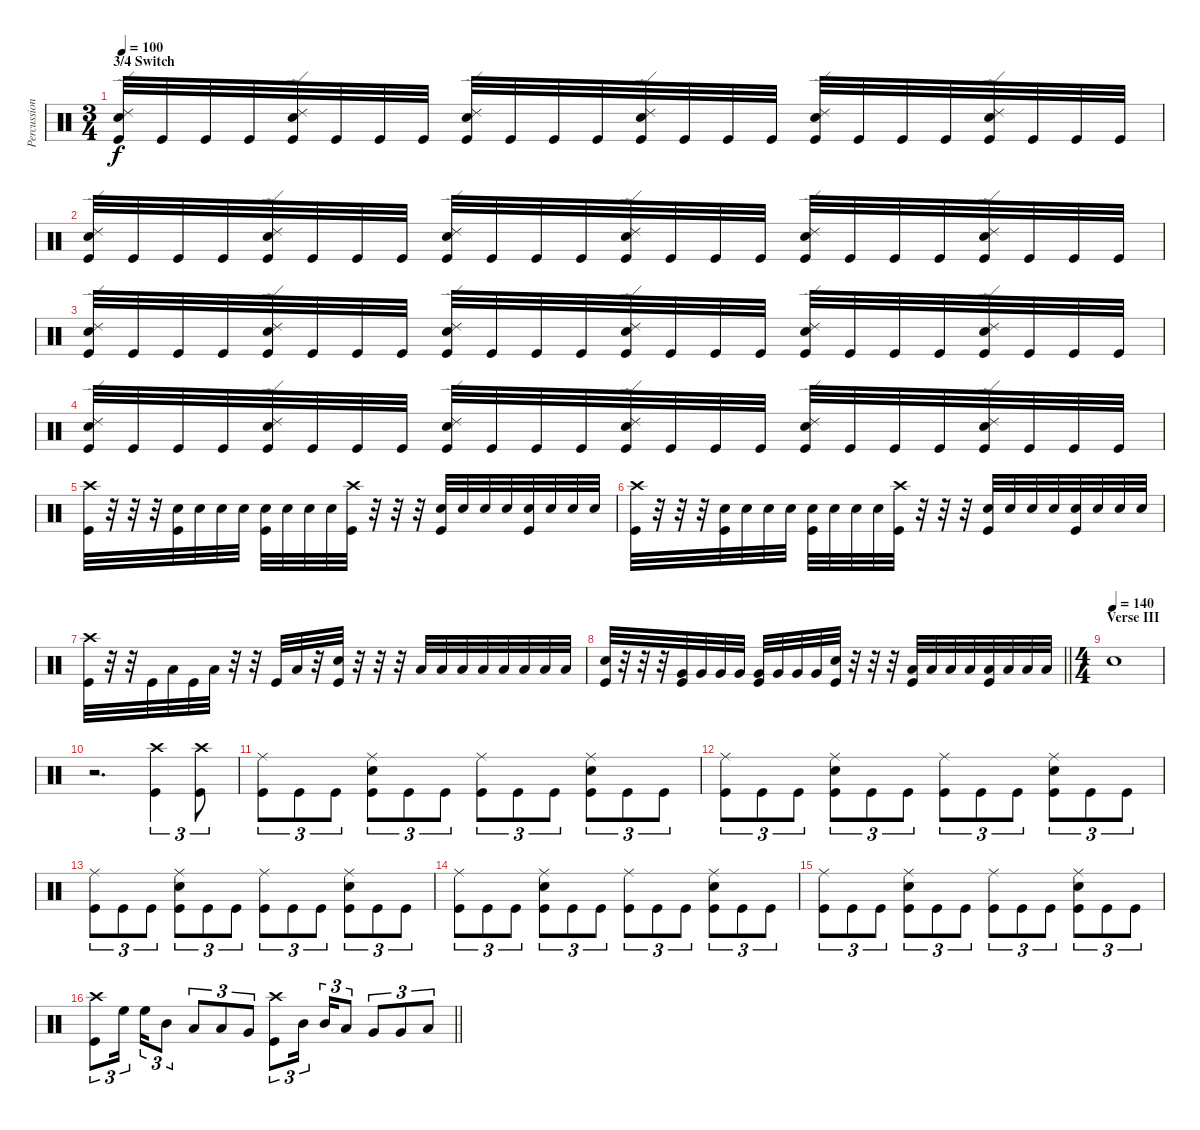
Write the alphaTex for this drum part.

\track ("Percussion" "Percussion") {instrument percussion}
\staff {score}
\articulation defaults
\ts (3 4)
\section ("" "3/4 Switch")
\tempo 100
\clef neutral
\ks c
("Ride (edge) 2" "Snare (hit) 2" "Kick (hit)").32{dy f} "Kick (hit)".32 "Kick (hit)".32 "Kick (hit)".32 ("Ride (edge) 2" "Snare (hit) 2" "Kick (hit)").32 "Kick (hit)".32 "Kick (hit)".32 "Kick (hit)".32 ("Ride (edge) 2" "Snare (hit) 2" "Kick (hit)").32 "Kick (hit)".32 "Kick (hit)".32 "Kick (hit)".32 ("Ride (edge) 2" "Snare (hit) 2" "Kick (hit)").32 "Kick (hit)".32 "Kick (hit)".32 "Kick (hit)".32 ("Ride (edge) 2" "Snare (hit) 2" "Kick (hit)").32 "Kick (hit)".32 "Kick (hit)".32 "Kick (hit)".32 ("Ride (edge) 2" "Snare (hit) 2" "Kick (hit)").32 "Kick (hit)".32 "Kick (hit)".32 "Kick (hit)".32 |
("Ride (edge) 2" "Snare (hit) 2" "Kick (hit)").32 "Kick (hit)".32 "Kick (hit)".32 "Kick (hit)".32 ("Ride (edge) 2" "Snare (hit) 2" "Kick (hit)").32 "Kick (hit)".32 "Kick (hit)".32 "Kick (hit)".32 ("Ride (edge) 2" "Snare (hit) 2" "Kick (hit)").32 "Kick (hit)".32 "Kick (hit)".32 "Kick (hit)".32 ("Ride (edge) 2" "Snare (hit) 2" "Kick (hit)").32 "Kick (hit)".32 "Kick (hit)".32 "Kick (hit)".32 ("Ride (edge) 2" "Snare (hit) 2" "Kick (hit)").32 "Kick (hit)".32 "Kick (hit)".32 "Kick (hit)".32 ("Ride (edge) 2" "Snare (hit) 2" "Kick (hit)").32 "Kick (hit)".32 "Kick (hit)".32 "Kick (hit)".32 |
("Ride (edge) 2" "Snare (hit) 2" "Kick (hit)").32 "Kick (hit)".32 "Kick (hit)".32 "Kick (hit)".32 ("Ride (edge) 2" "Snare (hit) 2" "Kick (hit)").32 "Kick (hit)".32 "Kick (hit)".32 "Kick (hit)".32 ("Ride (edge) 2" "Snare (hit) 2" "Kick (hit)").32 "Kick (hit)".32 "Kick (hit)".32 "Kick (hit)".32 ("Ride (edge) 2" "Snare (hit) 2" "Kick (hit)").32 "Kick (hit)".32 "Kick (hit)".32 "Kick (hit)".32 ("Ride (edge) 2" "Snare (hit) 2" "Kick (hit)").32 "Kick (hit)".32 "Kick (hit)".32 "Kick (hit)".32 ("Ride (edge) 2" "Snare (hit) 2" "Kick (hit)").32 "Kick (hit)".32 "Kick (hit)".32 "Kick (hit)".32 |
("Ride (edge) 2" "Snare (hit) 2" "Kick (hit)").32 "Kick (hit)".32 "Kick (hit)".32 "Kick (hit)".32 ("Ride (edge) 2" "Snare (hit) 2" "Kick (hit)").32 "Kick (hit)".32 "Kick (hit)".32 "Kick (hit)".32 ("Ride (edge) 2" "Snare (hit) 2" "Kick (hit)").32 "Kick (hit)".32 "Kick (hit)".32 "Kick (hit)".32 ("Ride (edge) 2" "Snare (hit) 2" "Kick (hit)").32 "Kick (hit)".32 "Kick (hit)".32 "Kick (hit)".32 ("Ride (edge) 2" "Snare (hit) 2" "Kick (hit)").32 "Kick (hit)".32 "Kick (hit)".32 "Kick (hit)".32 ("Ride (edge) 2" "Snare (hit) 2" "Kick (hit)").32 "Kick (hit)".32 "Kick (hit)".32 "Kick (hit)".32 |
("Crash high (hit)" "Kick (hit)").32 r.32 r.32 r.32 ("Snare (hit) 2" "Kick (hit)").32 "Snare (hit) 2".32 "Snare (hit) 2".32 "Snare (hit) 2".32 ("Snare (hit) 2" "Kick (hit)").32 "Snare (hit) 2".32 "Snare (hit) 2".32 "Snare (hit) 2".32 ("Crash high (hit)" "Kick (hit)").32 r.32 r.32 r.32 ("Snare (hit) 2" "Kick (hit)").32 "Snare (hit) 2".32 "Snare (hit) 2".32 "Snare (hit) 2".32 ("Snare (hit) 2" "Kick (hit)").32 "Snare (hit) 2".32 "Snare (hit) 2".32 "Snare (hit) 2".32 |
("Crash high (hit)" "Kick (hit)").32 r.32 r.32 r.32 ("Snare (hit) 2" "Kick (hit)").32 "Snare (hit) 2".32 "Snare (hit) 2".32 "Snare (hit) 2".32 ("Snare (hit) 2" "Kick (hit)").32 "Snare (hit) 2".32 "Snare (hit) 2".32 "Snare (hit) 2".32 ("Crash high (hit)" "Kick (hit)").32 r.32 r.32 r.32 ("Snare (hit) 2" "Kick (hit)").32 "Snare (hit) 2".32 "Snare (hit) 2".32 "Snare (hit) 2".32 ("Snare (hit) 2" "Kick (hit)").32 "Snare (hit) 2".32 "Snare (hit) 2".32 "Snare (hit) 2".32 |
("Crash high (hit)" "Kick (hit)").32 r.32 r.32 "Kick (hit)".32 "Low Tom (hit)".32 "Kick (hit)".32 "Low Tom (hit)".32 r.32 r.32 "Kick (hit)".32 "Low Tom (hit)".32 r.32 ("Snare (hit) 2" "Kick (hit)").32 r.32 r.32 r.32 "Low Tom (hit)".32 "Low Tom (hit)".32 "Low Tom (hit)".32 "Low Tom (hit)".32 "Low Tom (hit)".32 "Low Tom (hit)".32 "Low Tom (hit)".32 "Low Tom (hit)".32 |
\barLineRight lightlight
("Snare (hit) 2" "Kick (hit)").32 r.32 r.32 r.32 ("Very Low Tom (hit)" "Kick (hit)").32 "Very Low Tom (hit)".32 "Very Low Tom (hit)".32 "Very Low Tom (hit)".32 ("Very Low Tom (hit)" "Kick (hit)").32 "Very Low Tom (hit)".32 "Very Low Tom (hit)".32 "Very Low Tom (hit)".32 ("Snare (hit) 2" "Kick (hit)").32 r.32 r.32 r.32 ("Low Floor Tom (hit)" "Kick (hit)").32 "Low Floor Tom (hit)".32 "Low Floor Tom (hit)".32 "Low Floor Tom (hit)".32 ("Low Floor Tom (hit)" "Kick (hit)").32 "Low Floor Tom (hit)".32 "Low Floor Tom (hit)".32 "Low Floor Tom (hit)".32 |
\ts (4 4)
\section ("" "Verse III")
\tempo (140)
"Electric Snare (hit)".1 |
r.2{d} ("Crash high (hit)" "Kick (hit)").4{tu (3 2)} ("Crash high (hit)" "Kick (hit)").8{tu (3 2)} |
("Ride (middle)" "Kick (hit)").8{tu (3 2)} "Kick (hit)".8{tu (3 2)} "Kick (hit)".8{tu (3 2)} ("Ride (middle)" "Snare (hit) 2" "Kick (hit)").8{tu (3 2)} "Kick (hit)".8{tu (3 2)} "Kick (hit)".8{tu (3 2)} ("Ride (middle)" "Kick (hit)").8{tu (3 2)} "Kick (hit)".8{tu (3 2)} "Kick (hit)".8{tu (3 2)} ("Ride (middle)" "Snare (hit) 2" "Kick (hit)").8{tu (3 2)} "Kick (hit)".8{tu (3 2)} "Kick (hit)".8{tu (3 2)} |
("Ride (middle)" "Kick (hit)").8{tu (3 2)} "Kick (hit)".8{tu (3 2)} "Kick (hit)".8{tu (3 2)} ("Ride (middle)" "Snare (hit) 2" "Kick (hit)").8{tu (3 2)} "Kick (hit)".8{tu (3 2)} "Kick (hit)".8{tu (3 2)} ("Ride (middle)" "Kick (hit)").8{tu (3 2)} "Kick (hit)".8{tu (3 2)} "Kick (hit)".8{tu (3 2)} ("Ride (middle)" "Snare (hit) 2" "Kick (hit)").8{tu (3 2)} "Kick (hit)".8{tu (3 2)} "Kick (hit)".8{tu (3 2)} |
("Ride (middle)" "Kick (hit)").8{tu (3 2)} "Kick (hit)".8{tu (3 2)} "Kick (hit)".8{tu (3 2)} ("Ride (middle)" "Snare (hit) 2" "Kick (hit)").8{tu (3 2)} "Kick (hit)".8{tu (3 2)} "Kick (hit)".8{tu (3 2)} ("Ride (middle)" "Kick (hit)").8{tu (3 2)} "Kick (hit)".8{tu (3 2)} "Kick (hit)".8{tu (3 2)} ("Ride (middle)" "Snare (hit) 2" "Kick (hit)").8{tu (3 2)} "Kick (hit)".8{tu (3 2)} "Kick (hit)".8{tu (3 2)} |
("Ride (middle)" "Kick (hit)").8{tu (3 2)} "Kick (hit)".8{tu (3 2)} "Kick (hit)".8{tu (3 2)} ("Ride (middle)" "Snare (hit) 2" "Kick (hit)").8{tu (3 2)} "Kick (hit)".8{tu (3 2)} "Kick (hit)".8{tu (3 2)} ("Ride (middle)" "Kick (hit)").8{tu (3 2)} "Kick (hit)".8{tu (3 2)} "Kick (hit)".8{tu (3 2)} ("Ride (middle)" "Snare (hit) 2" "Kick (hit)").8{tu (3 2)} "Kick (hit)".8{tu (3 2)} "Kick (hit)".8{tu (3 2)} |
("Ride (middle)" "Kick (hit)").8{tu (3 2)} "Kick (hit)".8{tu (3 2)} "Kick (hit)".8{tu (3 2)} ("Ride (middle)" "Snare (hit) 2" "Kick (hit)").8{tu (3 2)} "Kick (hit)".8{tu (3 2)} "Kick (hit)".8{tu (3 2)} ("Ride (middle)" "Kick (hit)").8{tu (3 2)} "Kick (hit)".8{tu (3 2)} "Kick (hit)".8{tu (3 2)} ("Ride (middle)" "Snare (hit) 2" "Kick (hit)").8{tu (3 2)} "Kick (hit)".8{tu (3 2)} "Kick (hit)".8{tu (3 2)} |
\barLineRight lightlight
("Crash high (hit)" "Kick (hit)").8{tu (3 2)} "High Floor Tom (hit)".16{tu (3 2)} "High Floor Tom (hit)".16{tu (3 2)} "Mid Tom (hit)".8{tu (3 2)} "Low Tom (hit)".8{tu (3 2)} "Low Tom (hit)".8{tu (3 2)} "Very Low Tom (hit)".8{tu (3 2)} ("Crash high (hit)" "Kick (hit)").8{tu (3 2)} "Mid Tom (hit)".16{tu (3 2)} "Mid Tom (hit)".16{tu (3 2)} "Low Tom (hit)".8{tu (3 2)} "Very Low Tom (hit)".8{tu (3 2)} "Very Low Tom (hit)".8{tu (3 2)} "Low Floor Tom (hit)".8{tu (3 2)}
